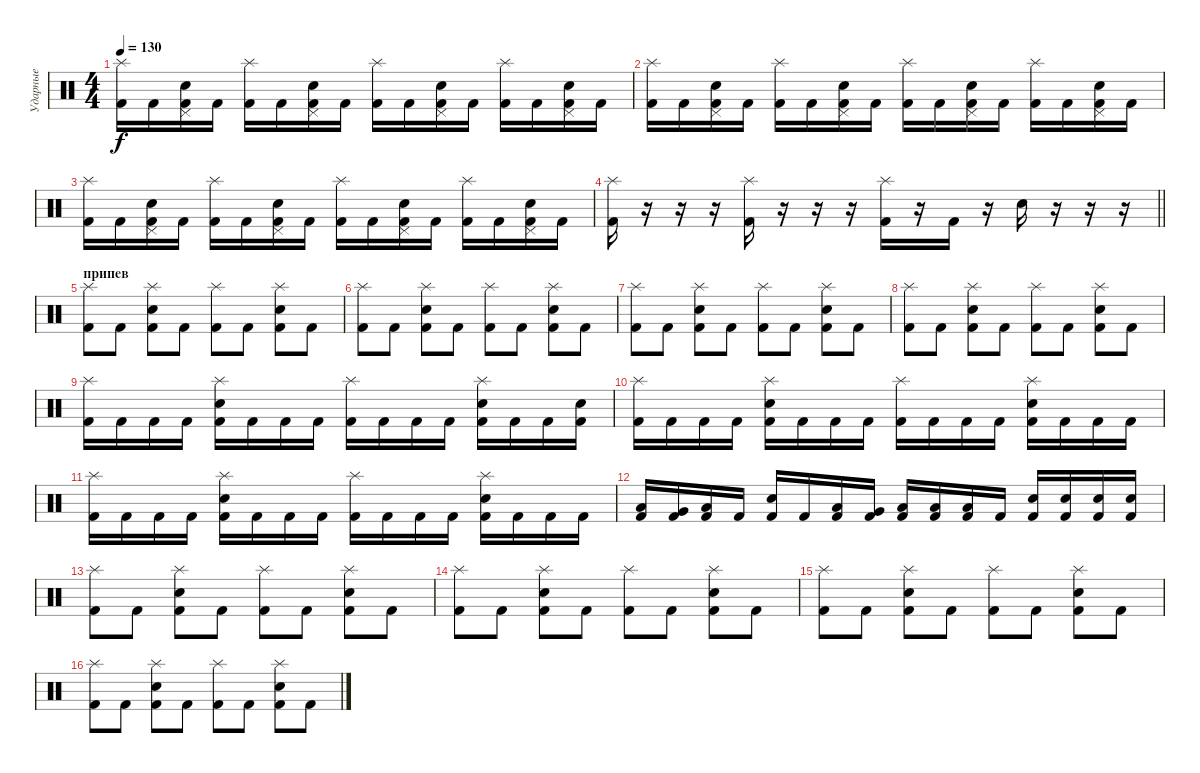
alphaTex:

\track ("Ударные" "Ударные") {instrument percussion}
\staff {score}
\articulation defaults
\ts (4 4)
\tempo 130
\clef neutral
\ks c
("Splash (hit)" "Kick (hit) 2").16{dy f} "Kick (hit) 2".16 ("Pedal Hi-Hat (hit)" "Electric Snare (hit)" "Kick (hit) 2").16 "Kick (hit) 2".16 ("Splash (hit)" "Kick (hit) 2").16 "Kick (hit) 2".16 ("Pedal Hi-Hat (hit)" "Electric Snare (hit)" "Kick (hit) 2").16 "Kick (hit) 2".16 ("Splash (hit)" "Kick (hit) 2").16 "Kick (hit) 2".16 ("Pedal Hi-Hat (hit)" "Electric Snare (hit)" "Kick (hit) 2").16 "Kick (hit) 2".16 ("Splash (hit)" "Kick (hit) 2").16 "Kick (hit) 2".16 ("Pedal Hi-Hat (hit)" "Electric Snare (hit)" "Kick (hit) 2").16 "Kick (hit) 2".16 |
("Splash (hit)" "Kick (hit) 2").16 "Kick (hit) 2".16 ("Pedal Hi-Hat (hit)" "Electric Snare (hit)" "Kick (hit) 2").16 "Kick (hit) 2".16 ("Splash (hit)" "Kick (hit) 2").16 "Kick (hit) 2".16 ("Pedal Hi-Hat (hit)" "Electric Snare (hit)" "Kick (hit) 2").16 "Kick (hit) 2".16 ("Splash (hit)" "Kick (hit) 2").16 "Kick (hit) 2".16 ("Pedal Hi-Hat (hit)" "Electric Snare (hit)" "Kick (hit) 2").16 "Kick (hit) 2".16 ("Splash (hit)" "Kick (hit) 2").16 "Kick (hit) 2".16 ("Pedal Hi-Hat (hit)" "Electric Snare (hit)" "Kick (hit) 2").16 "Kick (hit) 2".16 |
("Splash (hit)" "Kick (hit) 2").16 "Kick (hit) 2".16 ("Pedal Hi-Hat (hit)" "Electric Snare (hit)" "Kick (hit) 2").16 "Kick (hit) 2".16 ("Splash (hit)" "Kick (hit) 2").16 "Kick (hit) 2".16 ("Pedal Hi-Hat (hit)" "Electric Snare (hit)" "Kick (hit) 2").16 "Kick (hit) 2".16 ("Splash (hit)" "Kick (hit) 2").16 "Kick (hit) 2".16 ("Pedal Hi-Hat (hit)" "Electric Snare (hit)" "Kick (hit) 2").16 "Kick (hit) 2".16 ("Splash (hit)" "Kick (hit) 2").16 "Kick (hit) 2".16 ("Pedal Hi-Hat (hit)" "Electric Snare (hit)" "Kick (hit) 2").16 "Kick (hit) 2".16 |
\barLineRight lightlight
("Splash (hit)" "Kick (hit) 2").16 r.16 r.16 r.16 ("Splash (hit)" "Kick (hit) 2").16 r.16 r.16 r.16 ("Splash (hit)" "Kick (hit) 2").16 r.16 "Kick (hit) 2".16 r.16 "Electric Snare (hit)".16 r.16 r.16 r.16 |
\section ("" "припев")
("Splash (hit)" "Kick (hit) 2").8 "Kick (hit) 2".8 ("Splash (hit)" "Electric Snare (hit)" "Kick (hit) 2").8 "Kick (hit) 2".8 ("Splash (hit)" "Kick (hit) 2").8 "Kick (hit) 2".8 ("Splash (hit)" "Electric Snare (hit)" "Kick (hit) 2").8 "Kick (hit) 2".8 |
("Splash (hit)" "Kick (hit) 2").8 "Kick (hit) 2".8 ("Splash (hit)" "Electric Snare (hit)" "Kick (hit) 2").8 "Kick (hit) 2".8 ("Splash (hit)" "Kick (hit) 2").8 "Kick (hit) 2".8 ("Splash (hit)" "Electric Snare (hit)" "Kick (hit) 2").8 "Kick (hit) 2".8 |
("Splash (hit)" "Kick (hit) 2").8 "Kick (hit) 2".8 ("Splash (hit)" "Electric Snare (hit)" "Kick (hit) 2").8 "Kick (hit) 2".8 ("Splash (hit)" "Kick (hit) 2").8 "Kick (hit) 2".8 ("Splash (hit)" "Electric Snare (hit)" "Kick (hit) 2").8 "Kick (hit) 2".8 |
("Splash (hit)" "Kick (hit) 2").8 "Kick (hit) 2".8 ("Splash (hit)" "Electric Snare (hit)" "Kick (hit) 2").8 "Kick (hit) 2".8 ("Splash (hit)" "Kick (hit) 2").8 "Kick (hit) 2".8 ("Splash (hit)" "Electric Snare (hit)" "Kick (hit) 2").8 "Kick (hit) 2".8 |
("Splash (hit)" "Kick (hit) 2").16 "Kick (hit) 2".16 "Kick (hit) 2".16 "Kick (hit) 2".16 ("Splash (hit)" "Electric Snare (hit)" "Kick (hit) 2").16 "Kick (hit) 2".16 "Kick (hit) 2".16 "Kick (hit) 2".16 ("Splash (hit)" "Kick (hit) 2").16 "Kick (hit) 2".16 "Kick (hit) 2".16 "Kick (hit) 2".16 ("Splash (hit)" "Electric Snare (hit)" "Kick (hit) 2").16 "Kick (hit) 2".16 "Kick (hit) 2".16 ("Electric Snare (hit)" "Kick (hit) 2").16 |
("Splash (hit)" "Kick (hit) 2").16 "Kick (hit) 2".16 "Kick (hit) 2".16 "Kick (hit) 2".16 ("Splash (hit)" "Electric Snare (hit)" "Kick (hit) 2").16 "Kick (hit) 2".16 "Kick (hit) 2".16 "Kick (hit) 2".16 ("Splash (hit)" "Kick (hit) 2").16 "Kick (hit) 2".16 "Kick (hit) 2".16 "Kick (hit) 2".16 ("Splash (hit)" "Electric Snare (hit)" "Kick (hit) 2").16 "Kick (hit) 2".16 "Kick (hit) 2".16 "Kick (hit) 2".16 |
("Splash (hit)" "Kick (hit) 2").16 "Kick (hit) 2".16 "Kick (hit) 2".16 "Kick (hit) 2".16 ("Splash (hit)" "Electric Snare (hit)" "Kick (hit) 2").16 "Kick (hit) 2".16 "Kick (hit) 2".16 "Kick (hit) 2".16 ("Splash (hit)" "Kick (hit) 2").16 "Kick (hit) 2".16 "Kick (hit) 2".16 "Kick (hit) 2".16 ("Splash (hit)" "Electric Snare (hit)" "Kick (hit) 2").16 "Kick (hit) 2".16 "Kick (hit) 2".16 "Kick (hit) 2".16 |
("Low Tom (hit)" "Kick (hit) 2").16 ("Very Low Tom (hit)" "Kick (hit) 2").16 ("Low Floor Tom (hit)" "Kick (hit) 2").16 "Kick (hit) 2".16 ("Electric Snare (hit)" "Kick (hit) 2").16 "Kick (hit) 2".16 ("Low Tom (hit)" "Kick (hit) 2").16 ("Very Low Tom (hit)" "Kick (hit) 2").16 ("Low Floor Tom (hit)" "Kick (hit) 2").16 ("Low Floor Tom (hit)" "Kick (hit) 2").16 ("Low Floor Tom (hit)" "Kick (hit) 2").16 "Kick (hit) 2".16 ("Electric Snare (hit)" "Kick (hit) 2").16 ("Electric Snare (hit)" "Kick (hit) 2").16 ("Electric Snare (hit)" "Kick (hit) 2").16 ("Electric Snare (hit)" "Kick (hit) 2").16 |
("Splash (hit)" "Kick (hit) 2").8 "Kick (hit) 2".8 ("Splash (hit)" "Electric Snare (hit)" "Kick (hit) 2").8 "Kick (hit) 2".8 ("Splash (hit)" "Kick (hit) 2").8 "Kick (hit) 2".8 ("Splash (hit)" "Electric Snare (hit)" "Kick (hit) 2").8 "Kick (hit) 2".8 |
("Splash (hit)" "Kick (hit) 2").8 "Kick (hit) 2".8 ("Splash (hit)" "Electric Snare (hit)" "Kick (hit) 2").8 "Kick (hit) 2".8 ("Splash (hit)" "Kick (hit) 2").8 "Kick (hit) 2".8 ("Splash (hit)" "Electric Snare (hit)" "Kick (hit) 2").8 "Kick (hit) 2".8 |
("Splash (hit)" "Kick (hit) 2").8 "Kick (hit) 2".8 ("Splash (hit)" "Electric Snare (hit)" "Kick (hit) 2").8 "Kick (hit) 2".8 ("Splash (hit)" "Kick (hit) 2").8 "Kick (hit) 2".8 ("Splash (hit)" "Electric Snare (hit)" "Kick (hit) 2").8 "Kick (hit) 2".8 |
("Splash (hit)" "Kick (hit) 2").8 "Kick (hit) 2".8 ("Splash (hit)" "Electric Snare (hit)" "Kick (hit) 2").8 "Kick (hit) 2".8 ("Splash (hit)" "Kick (hit) 2").8 "Kick (hit) 2".8 ("Splash (hit)" "Electric Snare (hit)" "Kick (hit) 2").8 "Kick (hit) 2".8
